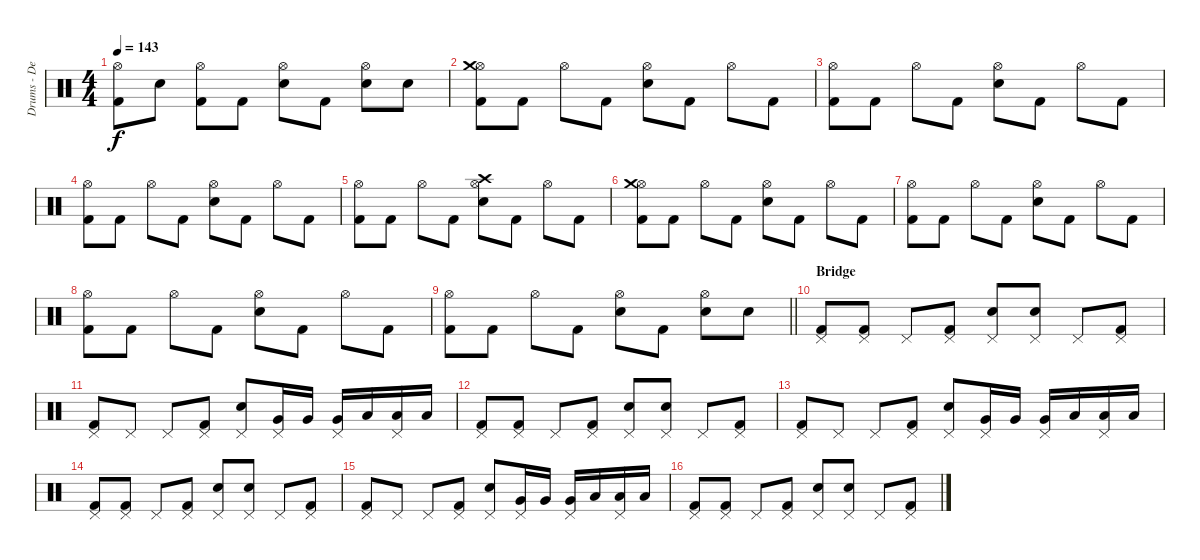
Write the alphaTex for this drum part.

\track ("Drums - Dennis Poschwatta" "Drums - De") {instrument percussion}
\staff {score}
\articulation defaults
\ts (4 4)
\tempo 143
\clef neutral
\ks c
("Hi-Hat (open)" "Kick (hit) 2").8{dy f} "Electric Snare (hit)".8 ("Hi-Hat (open)" "Kick (hit) 2").8 "Kick (hit) 2".8 ("Hi-Hat (open)" "Electric Snare (hit)").8 "Kick (hit) 2".8 ("Hi-Hat (open)" "Electric Snare (hit)").8 "Electric Snare (hit)".8 |
("Hi-Hat (open)" "Crash medium (hit)" "Kick (hit) 2").8 "Kick (hit) 2".8 "Hi-Hat (open)".8 "Kick (hit) 2".8 ("Hi-Hat (open)" "Electric Snare (hit)").8 "Kick (hit) 2".8 "Hi-Hat (open)".8 "Kick (hit) 2".8 |
("Hi-Hat (open)" "Kick (hit) 2").8 "Kick (hit) 2".8 "Hi-Hat (open)".8 "Kick (hit) 2".8 ("Hi-Hat (open)" "Electric Snare (hit)").8 "Kick (hit) 2".8 "Hi-Hat (open)".8 "Kick (hit) 2".8 |
("Hi-Hat (open)" "Kick (hit) 2").8 "Kick (hit) 2".8 "Hi-Hat (open)".8 "Kick (hit) 2".8 ("Hi-Hat (open)" "Electric Snare (hit)").8 "Kick (hit) 2".8 "Hi-Hat (open)".8 "Kick (hit) 2".8 |
("Hi-Hat (open)" "Kick (hit) 2").8 "Kick (hit) 2".8 "Hi-Hat (open)".8 "Kick (hit) 2".8 ("Hi-Hat (open)" "Crash high (hit)" "Electric Snare (hit)").8 "Kick (hit) 2".8 "Hi-Hat (open)".8 "Kick (hit) 2".8 |
("Hi-Hat (open)" "Crash medium (hit)" "Kick (hit) 2").8 "Kick (hit) 2".8 "Hi-Hat (open)".8 "Kick (hit) 2".8 ("Hi-Hat (open)" "Electric Snare (hit)").8 "Kick (hit) 2".8 "Hi-Hat (open)".8 "Kick (hit) 2".8 |
("Hi-Hat (open)" "Kick (hit) 2").8 "Kick (hit) 2".8 "Hi-Hat (open)".8 "Kick (hit) 2".8 ("Hi-Hat (open)" "Electric Snare (hit)").8 "Kick (hit) 2".8 "Hi-Hat (open)".8 "Kick (hit) 2".8 |
("Hi-Hat (open)" "Kick (hit) 2").8 "Kick (hit) 2".8 "Hi-Hat (open)".8 "Kick (hit) 2".8 ("Hi-Hat (open)" "Electric Snare (hit)").8 "Kick (hit) 2".8 "Hi-Hat (open)".8 "Kick (hit) 2".8 |
\barLineRight lightlight
("Hi-Hat (open)" "Kick (hit) 2").8 "Kick (hit) 2".8 "Hi-Hat (open)".8 "Kick (hit) 2".8 ("Hi-Hat (open)" "Electric Snare (hit)").8 "Kick (hit) 2".8 ("Hi-Hat (open)" "Electric Snare (hit)").8 "Electric Snare (hit)".8 |
\section ("" "Bridge")
("Pedal Hi-Hat (hit)" "Kick (hit) 2").8 ("Pedal Hi-Hat (hit)" "Kick (hit) 2").8 "Pedal Hi-Hat (hit)".8 ("Pedal Hi-Hat (hit)" "Kick (hit) 2").8 ("Pedal Hi-Hat (hit)" "Electric Snare (hit)").8 ("Pedal Hi-Hat (hit)" "Electric Snare (hit)").8 "Pedal Hi-Hat (hit)".8 ("Pedal Hi-Hat (hit)" "Kick (hit) 2").8 |
("Pedal Hi-Hat (hit)" "Kick (hit) 2").8 "Pedal Hi-Hat (hit)".8 "Pedal Hi-Hat (hit)".8 ("Pedal Hi-Hat (hit)" "Kick (hit) 2").8 ("Pedal Hi-Hat (hit)" "Electric Snare (hit)").8 ("Pedal Hi-Hat (hit)" "Very Low Tom (hit)").16 "Very Low Tom (hit)".16 ("Pedal Hi-Hat (hit)" "Very Low Tom (hit)").16 "Low Floor Tom (hit)".16 ("Pedal Hi-Hat (hit)" "Low Floor Tom (hit)").16 "Low Floor Tom (hit)".16 |
("Pedal Hi-Hat (hit)" "Kick (hit) 2").8 ("Pedal Hi-Hat (hit)" "Kick (hit) 2").8 "Pedal Hi-Hat (hit)".8 ("Pedal Hi-Hat (hit)" "Kick (hit) 2").8 ("Pedal Hi-Hat (hit)" "Electric Snare (hit)").8 ("Pedal Hi-Hat (hit)" "Electric Snare (hit)").8 "Pedal Hi-Hat (hit)".8 ("Pedal Hi-Hat (hit)" "Kick (hit) 2").8 |
("Pedal Hi-Hat (hit)" "Kick (hit) 2").8 "Pedal Hi-Hat (hit)".8 "Pedal Hi-Hat (hit)".8 ("Pedal Hi-Hat (hit)" "Kick (hit) 2").8 ("Pedal Hi-Hat (hit)" "Electric Snare (hit)").8 ("Pedal Hi-Hat (hit)" "Very Low Tom (hit)").16 "Very Low Tom (hit)".16 ("Pedal Hi-Hat (hit)" "Very Low Tom (hit)").16 "Low Floor Tom (hit)".16 ("Pedal Hi-Hat (hit)" "Low Floor Tom (hit)").16 "Low Floor Tom (hit)".16 |
("Pedal Hi-Hat (hit)" "Kick (hit) 2").8 ("Pedal Hi-Hat (hit)" "Kick (hit) 2").8 "Pedal Hi-Hat (hit)".8 ("Pedal Hi-Hat (hit)" "Kick (hit) 2").8 ("Pedal Hi-Hat (hit)" "Electric Snare (hit)").8 ("Pedal Hi-Hat (hit)" "Electric Snare (hit)").8 "Pedal Hi-Hat (hit)".8 ("Pedal Hi-Hat (hit)" "Kick (hit) 2").8 |
("Pedal Hi-Hat (hit)" "Kick (hit) 2").8 "Pedal Hi-Hat (hit)".8 "Pedal Hi-Hat (hit)".8 ("Pedal Hi-Hat (hit)" "Kick (hit) 2").8 ("Pedal Hi-Hat (hit)" "Electric Snare (hit)").8 ("Pedal Hi-Hat (hit)" "Very Low Tom (hit)").16 "Very Low Tom (hit)".16 ("Pedal Hi-Hat (hit)" "Very Low Tom (hit)").16 "Low Floor Tom (hit)".16 ("Pedal Hi-Hat (hit)" "Low Floor Tom (hit)").16 "Low Floor Tom (hit)".16 |
("Pedal Hi-Hat (hit)" "Kick (hit) 2").8 ("Pedal Hi-Hat (hit)" "Kick (hit) 2").8 "Pedal Hi-Hat (hit)".8 ("Pedal Hi-Hat (hit)" "Kick (hit) 2").8 ("Pedal Hi-Hat (hit)" "Electric Snare (hit)").8 ("Pedal Hi-Hat (hit)" "Electric Snare (hit)").8 "Pedal Hi-Hat (hit)".8 ("Pedal Hi-Hat (hit)" "Kick (hit) 2").8
